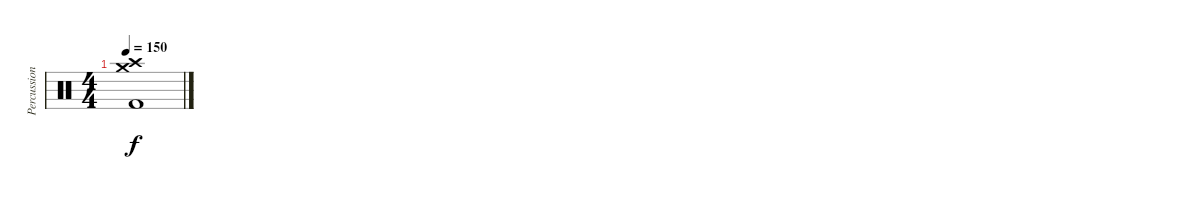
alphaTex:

\track ("Percussion" "Percussion") {instrument percussion}
\staff {score}
\articulation defaults
\ts (4 4)
\tempo 150
\clef neutral
\ks c
("Crash high (hit)" "Crash medium (hit)" "Kick (hit) 2").1{dy f}
